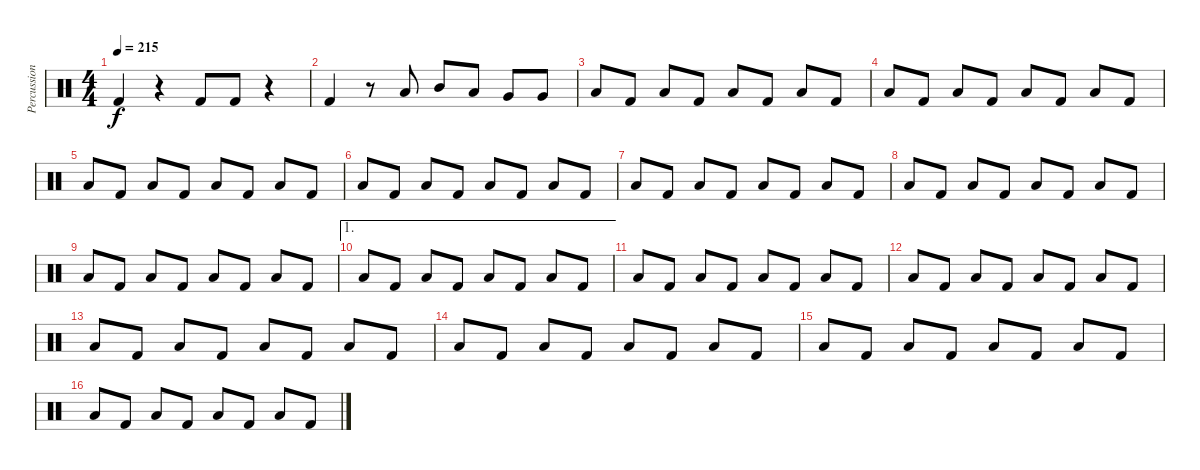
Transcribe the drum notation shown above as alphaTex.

\track ("Percussion" "Percussion") {instrument percussion}
\staff {score}
\articulation defaults
\ts (4 4)
\tempo 215
\clef neutral
\ks c "Kick (hit) 2".4{dy f}
r.4 "Kick (hit) 2".8 "Kick (hit) 2".8 r.4 |
"Kick (hit) 2".4 r.8 "Low Tom (hit)".8 "Mid Tom (hit)".8 "Low Tom (hit)".8 "Very Low Tom (hit)".8 "Very Low Tom (hit)".8 |
"Low Floor Tom (hit)".8 "Kick (hit) 2".8 "Low Floor Tom (hit)".8 "Kick (hit) 2".8 "Low Floor Tom (hit)".8 "Kick (hit) 2".8 "Low Floor Tom (hit)".8 "Kick (hit) 2".8 |
"Low Floor Tom (hit)".8 "Kick (hit) 2".8 "Low Floor Tom (hit)".8 "Kick (hit) 2".8 "Low Floor Tom (hit)".8 "Kick (hit) 2".8 "Low Floor Tom (hit)".8 "Kick (hit) 2".8 |
"Low Floor Tom (hit)".8 "Kick (hit) 2".8 "Low Floor Tom (hit)".8 "Kick (hit) 2".8 "Low Floor Tom (hit)".8 "Kick (hit) 2".8 "Low Floor Tom (hit)".8 "Kick (hit) 2".8 |
"Low Floor Tom (hit)".8 "Kick (hit) 2".8 "Low Floor Tom (hit)".8 "Kick (hit) 2".8 "Low Floor Tom (hit)".8 "Kick (hit) 2".8 "Low Floor Tom (hit)".8 "Kick (hit) 2".8 |
"Low Floor Tom (hit)".8 "Kick (hit) 2".8 "Low Floor Tom (hit)".8 "Kick (hit) 2".8 "Low Floor Tom (hit)".8 "Kick (hit) 2".8 "Low Floor Tom (hit)".8 "Kick (hit) 2".8 |
"Low Floor Tom (hit)".8 "Kick (hit) 2".8 "Low Floor Tom (hit)".8 "Kick (hit) 2".8 "Low Floor Tom (hit)".8 "Kick (hit) 2".8 "Low Floor Tom (hit)".8 "Kick (hit) 2".8 |
"Low Floor Tom (hit)".8 "Kick (hit) 2".8 "Low Floor Tom (hit)".8 "Kick (hit) 2".8 "Low Floor Tom (hit)".8 "Kick (hit) 2".8 "Low Floor Tom (hit)".8 "Kick (hit) 2".8 |
\ae 1 "Low Floor Tom (hit)".8 "Kick (hit) 2".8 "Low Floor Tom (hit)".8 "Kick (hit) 2".8 "Low Floor Tom (hit)".8 "Kick (hit) 2".8 "Low Floor Tom (hit)".8 "Kick (hit) 2".8
|
"Low Floor Tom (hit)".8 "Kick (hit) 2".8 "Low Floor Tom (hit)".8 "Kick (hit) 2".8 "Low Floor Tom (hit)".8 "Kick (hit) 2".8 "Low Floor Tom (hit)".8 "Kick (hit) 2".8 |
"Low Floor Tom (hit)".8 "Kick (hit) 2".8 "Low Floor Tom (hit)".8 "Kick (hit) 2".8 "Low Floor Tom (hit)".8 "Kick (hit) 2".8 "Low Floor Tom (hit)".8 "Kick (hit) 2".8 |
"Low Floor Tom (hit)".8 "Kick (hit) 2".8 "Low Floor Tom (hit)".8 "Kick (hit) 2".8 "Low Floor Tom (hit)".8 "Kick (hit) 2".8 "Low Floor Tom (hit)".8 "Kick (hit) 2".8 |
"Low Floor Tom (hit)".8 "Kick (hit) 2".8 "Low Floor Tom (hit)".8 "Kick (hit) 2".8 "Low Floor Tom (hit)".8 "Kick (hit) 2".8 "Low Floor Tom (hit)".8 "Kick (hit) 2".8 |
"Low Floor Tom (hit)".8 "Kick (hit) 2".8 "Low Floor Tom (hit)".8 "Kick (hit) 2".8 "Low Floor Tom (hit)".8 "Kick (hit) 2".8 "Low Floor Tom (hit)".8 "Kick (hit) 2".8 |
"Low Floor Tom (hit)".8 "Kick (hit) 2".8 "Low Floor Tom (hit)".8 "Kick (hit) 2".8 "Low Floor Tom (hit)".8 "Kick (hit) 2".8 "Low Floor Tom (hit)".8 "Kick (hit) 2".8
